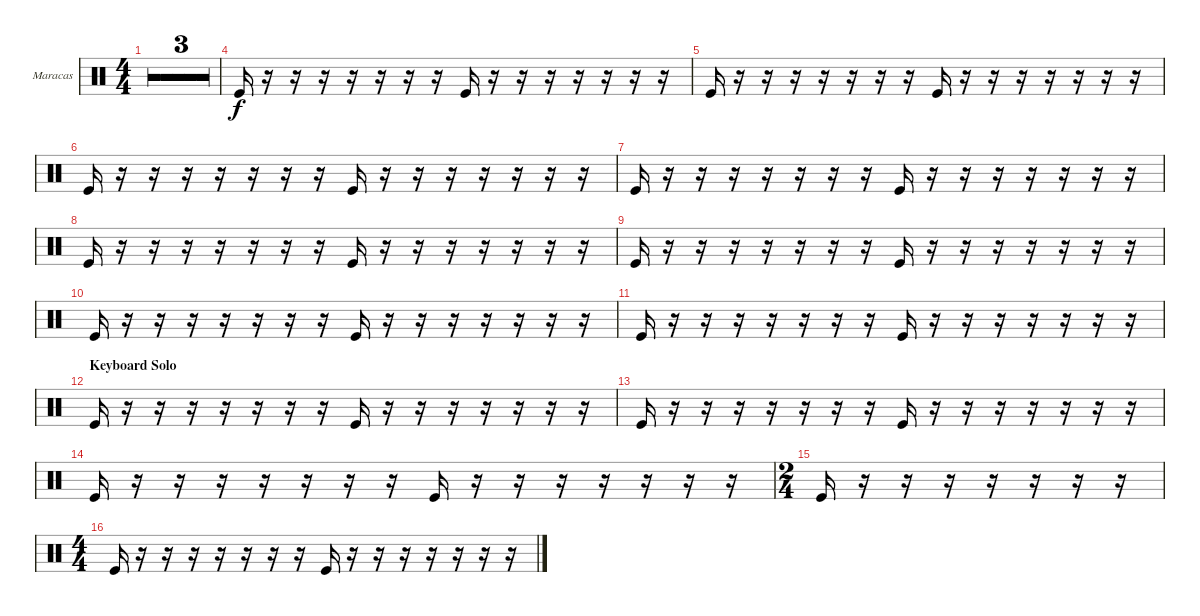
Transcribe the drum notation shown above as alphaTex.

\bracketExtendMode groupsimilarinstruments
\firstSystemTrackNameOrientation horizontal
\otherSystemsTrackNameOrientation horizontal
\track ("Maracas" "Maracas") {multiBarRest instrument percussion}
\staff {score}
\articulation defaults
\ts (4 4)
\tempo 90
\clef neutral
\ks c
r.16{dy f} r.16 r.16 r.16 r.16 r.16 r.16 r.16 r.16 r.16 r.16 r.16 r.16 r.16 r.16 r.16 |
r.16 r.16 r.16 r.16 r.16 r.16 r.16 r.16 r.16 r.16 r.16 r.16 r.16 r.16 r.16 r.16 |
r.16 r.16 r.16 r.16 r.16 r.16 r.16 r.16 r.16 r.16 r.16 r.16 r.16 r.16 r.16 r.16 |
"Kick (hit)".16 r.16 r.16 r.16 r.16 r.16 r.16 r.16 "Kick (hit)".16 r.16 r.16 r.16 r.16 r.16 r.16 r.16 |
"Kick (hit)".16 r.16 r.16 r.16 r.16 r.16 r.16 r.16 "Kick (hit)".16 r.16 r.16 r.16 r.16 r.16 r.16 r.16 |
"Kick (hit)".16 r.16 r.16 r.16 r.16 r.16 r.16 r.16 "Kick (hit)".16 r.16 r.16 r.16 r.16 r.16 r.16 r.16 |
"Kick (hit)".16 r.16 r.16 r.16 r.16 r.16 r.16 r.16 "Kick (hit)".16 r.16 r.16 r.16 r.16 r.16 r.16 r.16 |
"Kick (hit)".16 r.16 r.16 r.16 r.16 r.16 r.16 r.16 "Kick (hit)".16 r.16 r.16 r.16 r.16 r.16 r.16 r.16 |
"Kick (hit)".16 r.16 r.16 r.16 r.16 r.16 r.16 r.16 "Kick (hit)".16 r.16 r.16 r.16 r.16 r.16 r.16 r.16 |
"Kick (hit)".16 r.16 r.16 r.16 r.16 r.16 r.16 r.16 "Kick (hit)".16 r.16 r.16 r.16 r.16 r.16 r.16 r.16 |
"Kick (hit)".16 r.16 r.16 r.16 r.16 r.16 r.16 r.16 "Kick (hit)".16 r.16 r.16 r.16 r.16 r.16 r.16 r.16 |
\section ("" "Keyboard Solo")
"Kick (hit)".16 r.16 r.16 r.16 r.16 r.16 r.16 r.16 "Kick (hit)".16 r.16 r.16 r.16 r.16 r.16 r.16 r.16 |
"Kick (hit)".16 r.16 r.16 r.16 r.16 r.16 r.16 r.16 "Kick (hit)".16 r.16 r.16 r.16 r.16 r.16 r.16 r.16 |
"Kick (hit)".16 r.16 r.16 r.16 r.16 r.16 r.16 r.16 "Kick (hit)".16 r.16 r.16 r.16 r.16 r.16 r.16 r.16 |
\ts (2 4)
\beaming (8 2 2)
"Kick (hit)".16 r.16 r.16 r.16 r.16 r.16 r.16 r.16 |
\ts (4 4)
\beaming (8 2 2 2 2)
"Kick (hit)".16 r.16 r.16 r.16 r.16 r.16 r.16 r.16 "Kick (hit)".16 r.16 r.16 r.16 r.16 r.16 r.16 r.16
